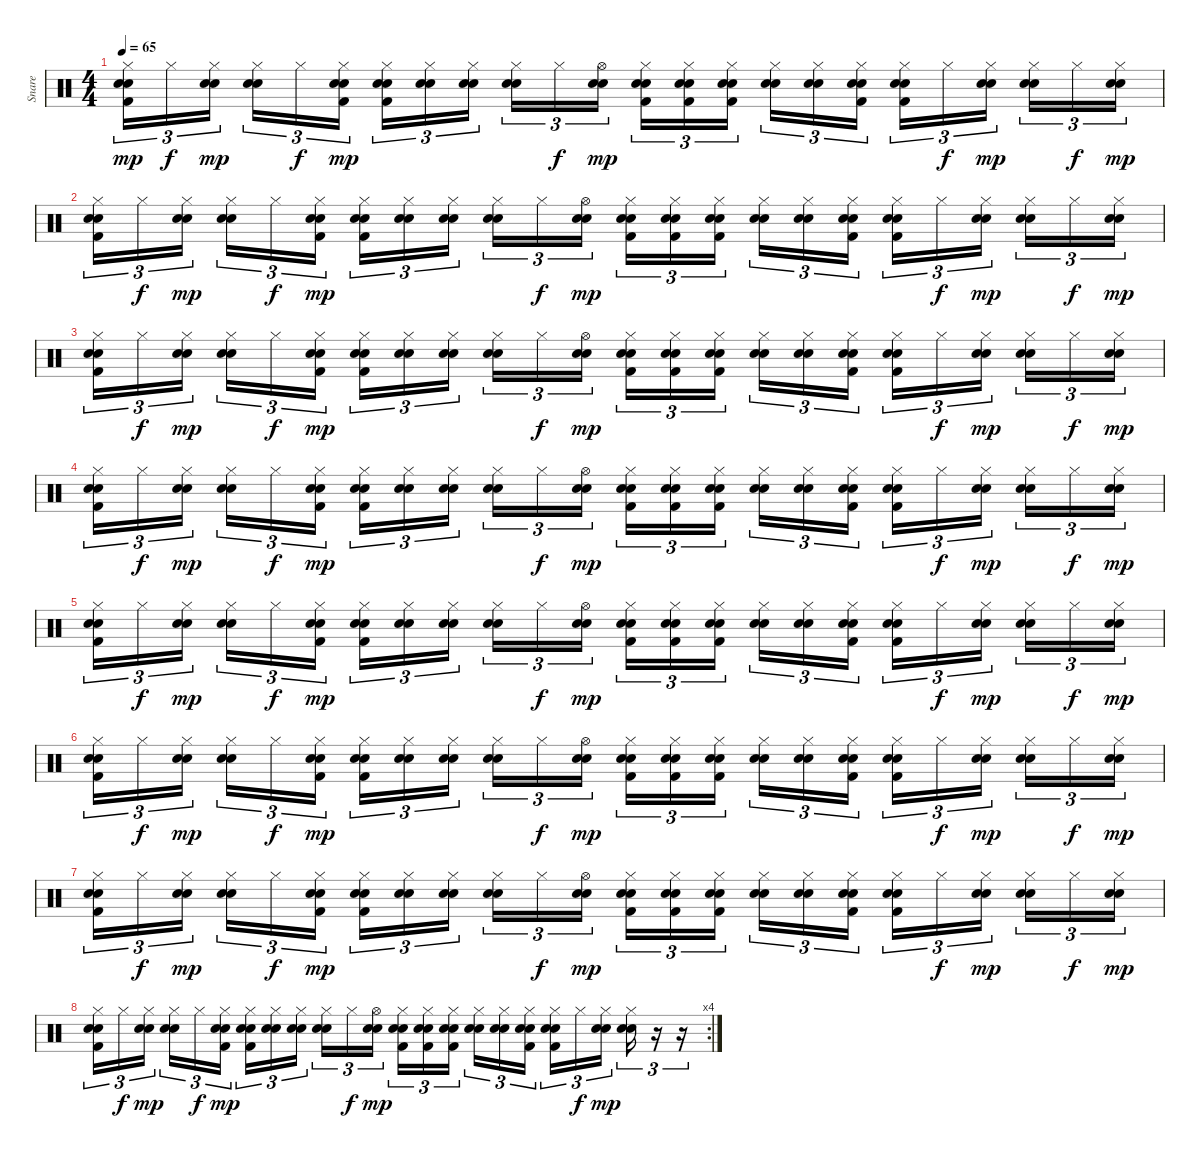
\track ("Snare" "Snare") {instrument percussion}
\staff {score}
\articulation defaults
\ts (4 4)
\tempo 65
\clef neutral
\ks c
("Hi-Hat (closed)" "Snare (hit) 2" "Electric Snare (hit)" "Kick (hit) 2").16{tu (3 2) dy mp} "Hi-Hat (closed)".16{tu (3 2) dy f} ("Hi-Hat (closed)" "Snare (hit) 2" "Electric Snare (hit)").16{tu (3 2) dy mp} ("Hi-Hat (closed)" "Snare (hit) 2" "Electric Snare (hit)").16{tu (3 2)} "Hi-Hat (closed)".16{tu (3 2) dy f} ("Hi-Hat (closed)" "Snare (hit) 2" "Electric Snare (hit)" "Kick (hit) 2").16{tu (3 2) dy mp} ("Hi-Hat (closed)" "Snare (hit) 2" "Electric Snare (hit)" "Kick (hit) 2").16{tu (3 2)} ("Hi-Hat (closed)" "Snare (hit) 2" "Electric Snare (hit)").16{tu (3 2)} ("Hi-Hat (closed)" "Snare (hit) 2" "Electric Snare (hit)").16{tu (3 2)} ("Hi-Hat (closed)" "Snare (hit) 2" "Electric Snare (hit)").16{tu (3 2)} "Hi-Hat (closed)".16{tu (3 2) dy f} ("Hi-Hat (open)" "Snare (hit) 2" "Electric Snare (hit)").16{tu (3 2) dy mp} ("Hi-Hat (closed)" "Snare (hit) 2" "Electric Snare (hit)" "Kick (hit) 2").16{tu (3 2)} ("Hi-Hat (closed)" "Snare (hit) 2" "Electric Snare (hit)" "Kick (hit) 2").16{tu (3 2)} ("Hi-Hat (closed)" "Snare (hit) 2" "Electric Snare (hit)" "Kick (hit) 2").16{tu (3 2)} ("Hi-Hat (closed)" "Snare (hit) 2" "Electric Snare (hit)").16{tu (3 2)} ("Hi-Hat (closed)" "Snare (hit) 2" "Electric Snare (hit)").16{tu (3 2)} ("Hi-Hat (closed)" "Snare (hit) 2" "Electric Snare (hit)" "Kick (hit) 2").16{tu (3 2)} ("Hi-Hat (closed)" "Snare (hit) 2" "Electric Snare (hit)" "Kick (hit) 2").16{tu (3 2)} "Hi-Hat (closed)".16{tu (3 2) dy f} ("Hi-Hat (closed)" "Snare (hit) 2" "Electric Snare (hit)").16{tu (3 2) dy mp} ("Hi-Hat (closed)" "Snare (hit) 2" "Electric Snare (hit)").16{tu (3 2)} "Hi-Hat (closed)".16{tu (3 2) dy f} ("Hi-Hat (closed)" "Snare (hit) 2" "Electric Snare (hit)").16{tu (3 2) dy mp} |
("Hi-Hat (closed)" "Snare (hit) 2" "Electric Snare (hit)" "Kick (hit) 2").16{tu (3 2)} "Hi-Hat (closed)".16{tu (3 2) dy f} ("Hi-Hat (closed)" "Snare (hit) 2" "Electric Snare (hit)").16{tu (3 2) dy mp} ("Hi-Hat (closed)" "Snare (hit) 2" "Electric Snare (hit)").16{tu (3 2)} "Hi-Hat (closed)".16{tu (3 2) dy f} ("Hi-Hat (closed)" "Snare (hit) 2" "Electric Snare (hit)" "Kick (hit) 2").16{tu (3 2) dy mp} ("Hi-Hat (closed)" "Snare (hit) 2" "Electric Snare (hit)" "Kick (hit) 2").16{tu (3 2)} ("Hi-Hat (closed)" "Snare (hit) 2" "Electric Snare (hit)").16{tu (3 2)} ("Hi-Hat (closed)" "Snare (hit) 2" "Electric Snare (hit)").16{tu (3 2)} ("Hi-Hat (closed)" "Snare (hit) 2" "Electric Snare (hit)").16{tu (3 2)} "Hi-Hat (closed)".16{tu (3 2) dy f} ("Hi-Hat (open)" "Snare (hit) 2" "Electric Snare (hit)").16{tu (3 2) dy mp} ("Hi-Hat (closed)" "Snare (hit) 2" "Electric Snare (hit)" "Kick (hit) 2").16{tu (3 2)} ("Hi-Hat (closed)" "Snare (hit) 2" "Electric Snare (hit)" "Kick (hit) 2").16{tu (3 2)} ("Hi-Hat (closed)" "Snare (hit) 2" "Electric Snare (hit)" "Kick (hit) 2").16{tu (3 2)} ("Hi-Hat (closed)" "Snare (hit) 2" "Electric Snare (hit)").16{tu (3 2)} ("Hi-Hat (closed)" "Snare (hit) 2" "Electric Snare (hit)").16{tu (3 2)} ("Hi-Hat (closed)" "Snare (hit) 2" "Electric Snare (hit)" "Kick (hit) 2").16{tu (3 2)} ("Hi-Hat (closed)" "Snare (hit) 2" "Electric Snare (hit)" "Kick (hit) 2").16{tu (3 2)} "Hi-Hat (closed)".16{tu (3 2) dy f} ("Hi-Hat (closed)" "Snare (hit) 2" "Electric Snare (hit)").16{tu (3 2) dy mp} ("Hi-Hat (closed)" "Snare (hit) 2" "Electric Snare (hit)").16{tu (3 2)} "Hi-Hat (closed)".16{tu (3 2) dy f} ("Hi-Hat (closed)" "Snare (hit) 2" "Electric Snare (hit)").16{tu (3 2) dy mp} |
("Hi-Hat (closed)" "Snare (hit) 2" "Electric Snare (hit)" "Kick (hit) 2").16{tu (3 2)} "Hi-Hat (closed)".16{tu (3 2) dy f} ("Hi-Hat (closed)" "Snare (hit) 2" "Electric Snare (hit)").16{tu (3 2) dy mp} ("Hi-Hat (closed)" "Snare (hit) 2" "Electric Snare (hit)").16{tu (3 2)} "Hi-Hat (closed)".16{tu (3 2) dy f} ("Hi-Hat (closed)" "Snare (hit) 2" "Electric Snare (hit)" "Kick (hit) 2").16{tu (3 2) dy mp} ("Hi-Hat (closed)" "Snare (hit) 2" "Electric Snare (hit)" "Kick (hit) 2").16{tu (3 2)} ("Hi-Hat (closed)" "Snare (hit) 2" "Electric Snare (hit)").16{tu (3 2)} ("Hi-Hat (closed)" "Snare (hit) 2" "Electric Snare (hit)").16{tu (3 2)} ("Hi-Hat (closed)" "Snare (hit) 2" "Electric Snare (hit)").16{tu (3 2)} "Hi-Hat (closed)".16{tu (3 2) dy f} ("Hi-Hat (open)" "Snare (hit) 2" "Electric Snare (hit)").16{tu (3 2) dy mp} ("Hi-Hat (closed)" "Snare (hit) 2" "Electric Snare (hit)" "Kick (hit) 2").16{tu (3 2)} ("Hi-Hat (closed)" "Snare (hit) 2" "Electric Snare (hit)" "Kick (hit) 2").16{tu (3 2)} ("Hi-Hat (closed)" "Snare (hit) 2" "Electric Snare (hit)" "Kick (hit) 2").16{tu (3 2)} ("Hi-Hat (closed)" "Snare (hit) 2" "Electric Snare (hit)").16{tu (3 2)} ("Hi-Hat (closed)" "Snare (hit) 2" "Electric Snare (hit)").16{tu (3 2)} ("Hi-Hat (closed)" "Snare (hit) 2" "Electric Snare (hit)" "Kick (hit) 2").16{tu (3 2)} ("Hi-Hat (closed)" "Snare (hit) 2" "Electric Snare (hit)" "Kick (hit) 2").16{tu (3 2)} "Hi-Hat (closed)".16{tu (3 2) dy f} ("Hi-Hat (closed)" "Snare (hit) 2" "Electric Snare (hit)").16{tu (3 2) dy mp} ("Hi-Hat (closed)" "Snare (hit) 2" "Electric Snare (hit)").16{tu (3 2)} "Hi-Hat (closed)".16{tu (3 2) dy f} ("Hi-Hat (closed)" "Snare (hit) 2" "Electric Snare (hit)").16{tu (3 2) dy mp} |
("Hi-Hat (closed)" "Snare (hit) 2" "Electric Snare (hit)" "Kick (hit) 2").16{tu (3 2)} "Hi-Hat (closed)".16{tu (3 2) dy f} ("Hi-Hat (closed)" "Snare (hit) 2" "Electric Snare (hit)").16{tu (3 2) dy mp} ("Hi-Hat (closed)" "Snare (hit) 2" "Electric Snare (hit)").16{tu (3 2)} "Hi-Hat (closed)".16{tu (3 2) dy f} ("Hi-Hat (closed)" "Snare (hit) 2" "Electric Snare (hit)" "Kick (hit) 2").16{tu (3 2) dy mp} ("Hi-Hat (closed)" "Snare (hit) 2" "Electric Snare (hit)" "Kick (hit) 2").16{tu (3 2)} ("Hi-Hat (closed)" "Snare (hit) 2" "Electric Snare (hit)").16{tu (3 2)} ("Hi-Hat (closed)" "Snare (hit) 2" "Electric Snare (hit)").16{tu (3 2)} ("Hi-Hat (closed)" "Snare (hit) 2" "Electric Snare (hit)").16{tu (3 2)} "Hi-Hat (closed)".16{tu (3 2) dy f} ("Hi-Hat (open)" "Snare (hit) 2" "Electric Snare (hit)").16{tu (3 2) dy mp} ("Hi-Hat (closed)" "Snare (hit) 2" "Electric Snare (hit)" "Kick (hit) 2").16{tu (3 2)} ("Hi-Hat (closed)" "Snare (hit) 2" "Electric Snare (hit)" "Kick (hit) 2").16{tu (3 2)} ("Hi-Hat (closed)" "Snare (hit) 2" "Electric Snare (hit)" "Kick (hit) 2").16{tu (3 2)} ("Hi-Hat (closed)" "Snare (hit) 2" "Electric Snare (hit)").16{tu (3 2)} ("Hi-Hat (closed)" "Snare (hit) 2" "Electric Snare (hit)").16{tu (3 2)} ("Hi-Hat (closed)" "Snare (hit) 2" "Electric Snare (hit)" "Kick (hit) 2").16{tu (3 2)} ("Hi-Hat (closed)" "Snare (hit) 2" "Electric Snare (hit)" "Kick (hit) 2").16{tu (3 2)} "Hi-Hat (closed)".16{tu (3 2) dy f} ("Hi-Hat (closed)" "Snare (hit) 2" "Electric Snare (hit)").16{tu (3 2) dy mp} ("Hi-Hat (closed)" "Snare (hit) 2" "Electric Snare (hit)").16{tu (3 2)} "Hi-Hat (closed)".16{tu (3 2) dy f} ("Hi-Hat (closed)" "Snare (hit) 2" "Electric Snare (hit)").16{tu (3 2) dy mp} |
("Hi-Hat (closed)" "Snare (hit) 2" "Electric Snare (hit)" "Kick (hit) 2").16{tu (3 2)} "Hi-Hat (closed)".16{tu (3 2) dy f} ("Hi-Hat (closed)" "Snare (hit) 2" "Electric Snare (hit)").16{tu (3 2) dy mp} ("Hi-Hat (closed)" "Snare (hit) 2" "Electric Snare (hit)").16{tu (3 2)} "Hi-Hat (closed)".16{tu (3 2) dy f} ("Hi-Hat (closed)" "Snare (hit) 2" "Electric Snare (hit)" "Kick (hit) 2").16{tu (3 2) dy mp} ("Hi-Hat (closed)" "Snare (hit) 2" "Electric Snare (hit)" "Kick (hit) 2").16{tu (3 2)} ("Hi-Hat (closed)" "Snare (hit) 2" "Electric Snare (hit)").16{tu (3 2)} ("Hi-Hat (closed)" "Snare (hit) 2" "Electric Snare (hit)").16{tu (3 2)} ("Hi-Hat (closed)" "Snare (hit) 2" "Electric Snare (hit)").16{tu (3 2)} "Hi-Hat (closed)".16{tu (3 2) dy f} ("Hi-Hat (open)" "Snare (hit) 2" "Electric Snare (hit)").16{tu (3 2) dy mp} ("Hi-Hat (closed)" "Snare (hit) 2" "Electric Snare (hit)" "Kick (hit) 2").16{tu (3 2)} ("Hi-Hat (closed)" "Snare (hit) 2" "Electric Snare (hit)" "Kick (hit) 2").16{tu (3 2)} ("Hi-Hat (closed)" "Snare (hit) 2" "Electric Snare (hit)" "Kick (hit) 2").16{tu (3 2)} ("Hi-Hat (closed)" "Snare (hit) 2" "Electric Snare (hit)").16{tu (3 2)} ("Hi-Hat (closed)" "Snare (hit) 2" "Electric Snare (hit)").16{tu (3 2)} ("Hi-Hat (closed)" "Snare (hit) 2" "Electric Snare (hit)" "Kick (hit) 2").16{tu (3 2)} ("Hi-Hat (closed)" "Snare (hit) 2" "Electric Snare (hit)" "Kick (hit) 2").16{tu (3 2)} "Hi-Hat (closed)".16{tu (3 2) dy f} ("Hi-Hat (closed)" "Snare (hit) 2" "Electric Snare (hit)").16{tu (3 2) dy mp} ("Hi-Hat (closed)" "Snare (hit) 2" "Electric Snare (hit)").16{tu (3 2)} "Hi-Hat (closed)".16{tu (3 2) dy f} ("Hi-Hat (closed)" "Snare (hit) 2" "Electric Snare (hit)").16{tu (3 2) dy mp} |
("Hi-Hat (closed)" "Snare (hit) 2" "Electric Snare (hit)" "Kick (hit) 2").16{tu (3 2)} "Hi-Hat (closed)".16{tu (3 2) dy f} ("Hi-Hat (closed)" "Snare (hit) 2" "Electric Snare (hit)").16{tu (3 2) dy mp} ("Hi-Hat (closed)" "Snare (hit) 2" "Electric Snare (hit)").16{tu (3 2)} "Hi-Hat (closed)".16{tu (3 2) dy f} ("Hi-Hat (closed)" "Snare (hit) 2" "Electric Snare (hit)" "Kick (hit) 2").16{tu (3 2) dy mp} ("Hi-Hat (closed)" "Snare (hit) 2" "Electric Snare (hit)" "Kick (hit) 2").16{tu (3 2)} ("Hi-Hat (closed)" "Snare (hit) 2" "Electric Snare (hit)").16{tu (3 2)} ("Hi-Hat (closed)" "Snare (hit) 2" "Electric Snare (hit)").16{tu (3 2)} ("Hi-Hat (closed)" "Snare (hit) 2" "Electric Snare (hit)").16{tu (3 2)} "Hi-Hat (closed)".16{tu (3 2) dy f} ("Hi-Hat (open)" "Snare (hit) 2" "Electric Snare (hit)").16{tu (3 2) dy mp} ("Hi-Hat (closed)" "Snare (hit) 2" "Electric Snare (hit)" "Kick (hit) 2").16{tu (3 2)} ("Hi-Hat (closed)" "Snare (hit) 2" "Electric Snare (hit)" "Kick (hit) 2").16{tu (3 2)} ("Hi-Hat (closed)" "Snare (hit) 2" "Electric Snare (hit)" "Kick (hit) 2").16{tu (3 2)} ("Hi-Hat (closed)" "Snare (hit) 2" "Electric Snare (hit)").16{tu (3 2)} ("Hi-Hat (closed)" "Snare (hit) 2" "Electric Snare (hit)").16{tu (3 2)} ("Hi-Hat (closed)" "Snare (hit) 2" "Electric Snare (hit)" "Kick (hit) 2").16{tu (3 2)} ("Hi-Hat (closed)" "Snare (hit) 2" "Electric Snare (hit)" "Kick (hit) 2").16{tu (3 2)} "Hi-Hat (closed)".16{tu (3 2) dy f} ("Hi-Hat (closed)" "Snare (hit) 2" "Electric Snare (hit)").16{tu (3 2) dy mp} ("Hi-Hat (closed)" "Snare (hit) 2" "Electric Snare (hit)").16{tu (3 2)} "Hi-Hat (closed)".16{tu (3 2) dy f} ("Hi-Hat (closed)" "Snare (hit) 2" "Electric Snare (hit)").16{tu (3 2) dy mp} |
("Hi-Hat (closed)" "Snare (hit) 2" "Electric Snare (hit)" "Kick (hit) 2").16{tu (3 2)} "Hi-Hat (closed)".16{tu (3 2) dy f} ("Hi-Hat (closed)" "Snare (hit) 2" "Electric Snare (hit)").16{tu (3 2) dy mp} ("Hi-Hat (closed)" "Snare (hit) 2" "Electric Snare (hit)").16{tu (3 2)} "Hi-Hat (closed)".16{tu (3 2) dy f} ("Hi-Hat (closed)" "Snare (hit) 2" "Electric Snare (hit)" "Kick (hit) 2").16{tu (3 2) dy mp} ("Hi-Hat (closed)" "Snare (hit) 2" "Electric Snare (hit)" "Kick (hit) 2").16{tu (3 2)} ("Hi-Hat (closed)" "Snare (hit) 2" "Electric Snare (hit)").16{tu (3 2)} ("Hi-Hat (closed)" "Snare (hit) 2" "Electric Snare (hit)").16{tu (3 2)} ("Hi-Hat (closed)" "Snare (hit) 2" "Electric Snare (hit)").16{tu (3 2)} "Hi-Hat (closed)".16{tu (3 2) dy f} ("Hi-Hat (open)" "Snare (hit) 2" "Electric Snare (hit)").16{tu (3 2) dy mp} ("Hi-Hat (closed)" "Snare (hit) 2" "Electric Snare (hit)" "Kick (hit) 2").16{tu (3 2)} ("Hi-Hat (closed)" "Snare (hit) 2" "Electric Snare (hit)" "Kick (hit) 2").16{tu (3 2)} ("Hi-Hat (closed)" "Snare (hit) 2" "Electric Snare (hit)" "Kick (hit) 2").16{tu (3 2)} ("Hi-Hat (closed)" "Snare (hit) 2" "Electric Snare (hit)").16{tu (3 2)} ("Hi-Hat (closed)" "Snare (hit) 2" "Electric Snare (hit)").16{tu (3 2)} ("Hi-Hat (closed)" "Snare (hit) 2" "Electric Snare (hit)" "Kick (hit) 2").16{tu (3 2)} ("Hi-Hat (closed)" "Snare (hit) 2" "Electric Snare (hit)" "Kick (hit) 2").16{tu (3 2)} "Hi-Hat (closed)".16{tu (3 2) dy f} ("Hi-Hat (closed)" "Snare (hit) 2" "Electric Snare (hit)").16{tu (3 2) dy mp} ("Hi-Hat (closed)" "Snare (hit) 2" "Electric Snare (hit)").16{tu (3 2)} "Hi-Hat (closed)".16{tu (3 2) dy f} ("Hi-Hat (closed)" "Snare (hit) 2" "Electric Snare (hit)").16{tu (3 2) dy mp} |
\rc 4
("Hi-Hat (closed)" "Snare (hit) 2" "Electric Snare (hit)" "Kick (hit) 2").16{tu (3 2)} "Hi-Hat (closed)".16{tu (3 2) dy f} ("Hi-Hat (closed)" "Snare (hit) 2" "Electric Snare (hit)").16{tu (3 2) dy mp} ("Hi-Hat (closed)" "Snare (hit) 2" "Electric Snare (hit)").16{tu (3 2)} "Hi-Hat (closed)".16{tu (3 2) dy f} ("Hi-Hat (closed)" "Snare (hit) 2" "Electric Snare (hit)" "Kick (hit) 2").16{tu (3 2) dy mp} ("Hi-Hat (closed)" "Snare (hit) 2" "Electric Snare (hit)" "Kick (hit) 2").16{tu (3 2)} ("Hi-Hat (closed)" "Snare (hit) 2" "Electric Snare (hit)").16{tu (3 2)} ("Hi-Hat (closed)" "Snare (hit) 2" "Electric Snare (hit)").16{tu (3 2)} ("Hi-Hat (closed)" "Snare (hit) 2" "Electric Snare (hit)").16{tu (3 2)} "Hi-Hat (closed)".16{tu (3 2) dy f} ("Hi-Hat (open)" "Snare (hit) 2" "Electric Snare (hit)").16{tu (3 2) dy mp} ("Hi-Hat (closed)" "Snare (hit) 2" "Electric Snare (hit)" "Kick (hit) 2").16{tu (3 2)} ("Hi-Hat (closed)" "Snare (hit) 2" "Electric Snare (hit)" "Kick (hit) 2").16{tu (3 2)} ("Hi-Hat (closed)" "Snare (hit) 2" "Electric Snare (hit)" "Kick (hit) 2").16{tu (3 2)} ("Hi-Hat (closed)" "Snare (hit) 2" "Electric Snare (hit)").16{tu (3 2)} ("Hi-Hat (closed)" "Snare (hit) 2" "Electric Snare (hit)").16{tu (3 2)} ("Hi-Hat (closed)" "Snare (hit) 2" "Electric Snare (hit)" "Kick (hit) 2").16{tu (3 2)} ("Hi-Hat (closed)" "Snare (hit) 2" "Electric Snare (hit)" "Kick (hit) 2").16{tu (3 2)} "Hi-Hat (closed)".16{tu (3 2) dy f} ("Hi-Hat (closed)" "Snare (hit) 2" "Electric Snare (hit)").16{tu (3 2) dy mp} ("Hi-Hat (closed)" "Snare (hit) 2" "Electric Snare (hit)").16{tu (3 2)} r.16{tu (3 2)} r.16{tu (3 2)}
